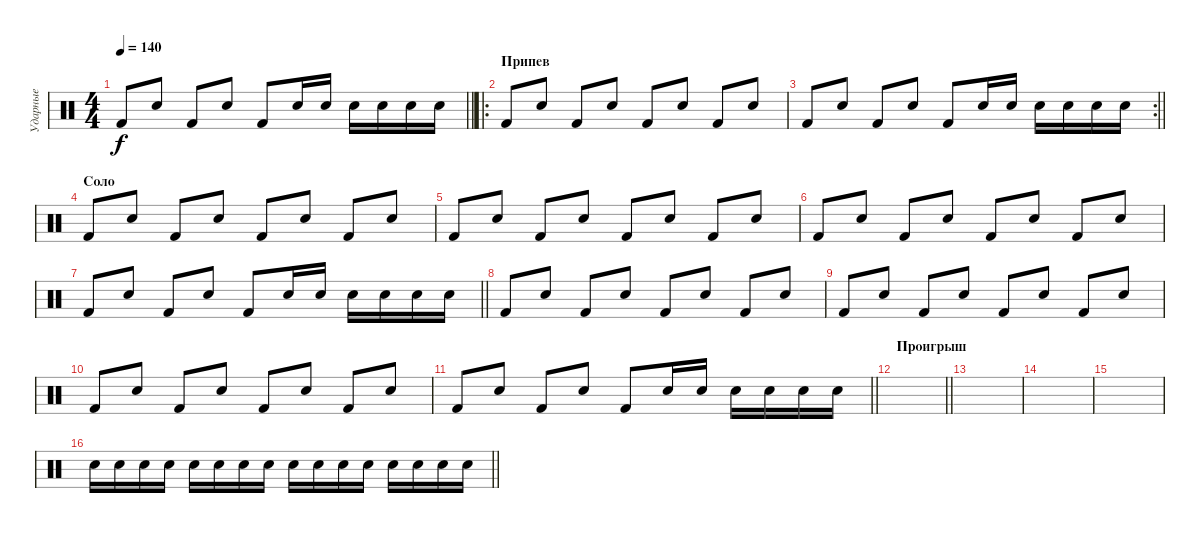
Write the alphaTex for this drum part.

\track ("Ударные" "Ударные") {instrument percussion}
\staff {score}
\articulation defaults
\ts (4 4)
\tempo 140
\clef neutral
\barLineRight lightlight
\ks c "Kick (hit) 2".8{dy f} "Electric Snare (hit)".8 "Kick (hit) 2".8 "Electric Snare (hit)".8 "Kick (hit) 2".8 "Electric Snare (hit)".16 "Electric Snare (hit)".16 "Electric Snare (hit)".16 "Electric Snare (hit)".16 "Electric Snare (hit)".16 "Electric Snare (hit)".16
|
\ro
\section ("" "Припев")
"Kick (hit) 2".8 "Electric Snare (hit)".8 "Kick (hit) 2".8 "Electric Snare (hit)".8 "Kick (hit) 2".8 "Electric Snare (hit)".8 "Kick (hit) 2".8 "Electric Snare (hit)".8 |
\rc 2
\barLineRight lightlight "Kick (hit) 2".8 "Electric Snare (hit)".8 "Kick (hit) 2".8 "Electric Snare (hit)".8 "Kick (hit) 2".8 "Electric Snare (hit)".16 "Electric Snare (hit)".16 "Electric Snare (hit)".16 "Electric Snare (hit)".16 "Electric Snare (hit)".16 "Electric Snare (hit)".16
|
\section ("" "Соло")
"Kick (hit) 2".8 "Electric Snare (hit)".8 "Kick (hit) 2".8 "Electric Snare (hit)".8 "Kick (hit) 2".8 "Electric Snare (hit)".8 "Kick (hit) 2".8 "Electric Snare (hit)".8 |
"Kick (hit) 2".8 "Electric Snare (hit)".8 "Kick (hit) 2".8 "Electric Snare (hit)".8 "Kick (hit) 2".8 "Electric Snare (hit)".8 "Kick (hit) 2".8 "Electric Snare (hit)".8 |
"Kick (hit) 2".8 "Electric Snare (hit)".8 "Kick (hit) 2".8 "Electric Snare (hit)".8 "Kick (hit) 2".8 "Electric Snare (hit)".8 "Kick (hit) 2".8 "Electric Snare (hit)".8 |
\barLineRight lightlight "Kick (hit) 2".8 "Electric Snare (hit)".8 "Kick (hit) 2".8 "Electric Snare (hit)".8 "Kick (hit) 2".8 "Electric Snare (hit)".16 "Electric Snare (hit)".16 "Electric Snare (hit)".16 "Electric Snare (hit)".16 "Electric Snare (hit)".16 "Electric Snare (hit)".16
|
"Kick (hit) 2".8 "Electric Snare (hit)".8 "Kick (hit) 2".8 "Electric Snare (hit)".8 "Kick (hit) 2".8 "Electric Snare (hit)".8 "Kick (hit) 2".8 "Electric Snare (hit)".8 |
"Kick (hit) 2".8 "Electric Snare (hit)".8 "Kick (hit) 2".8 "Electric Snare (hit)".8 "Kick (hit) 2".8 "Electric Snare (hit)".8 "Kick (hit) 2".8 "Electric Snare (hit)".8 |
"Kick (hit) 2".8 "Electric Snare (hit)".8 "Kick (hit) 2".8 "Electric Snare (hit)".8 "Kick (hit) 2".8 "Electric Snare (hit)".8 "Kick (hit) 2".8 "Electric Snare (hit)".8 |
\barLineRight lightlight "Kick (hit) 2".8 "Electric Snare (hit)".8 "Kick (hit) 2".8 "Electric Snare (hit)".8 "Kick (hit) 2".8 "Electric Snare (hit)".16 "Electric Snare (hit)".16 "Electric Snare (hit)".16 "Electric Snare (hit)".16 "Electric Snare (hit)".16 "Electric Snare (hit)".16
|
\section ("" "Проигрыш")
\barLineRight lightlight
|
|
|
|
\barLineRight lightlight "Electric Snare (hit)".16 "Electric Snare (hit)".16 "Electric Snare (hit)".16 "Electric Snare (hit)".16 "Electric Snare (hit)".16 "Electric Snare (hit)".16 "Electric Snare (hit)".16 "Electric Snare (hit)".16 "Electric Snare (hit)".16 "Electric Snare (hit)".16 "Electric Snare (hit)".16 "Electric Snare (hit)".16 "Electric Snare (hit)".16 "Electric Snare (hit)".16 "Electric Snare (hit)".16 "Electric Snare (hit)".16
